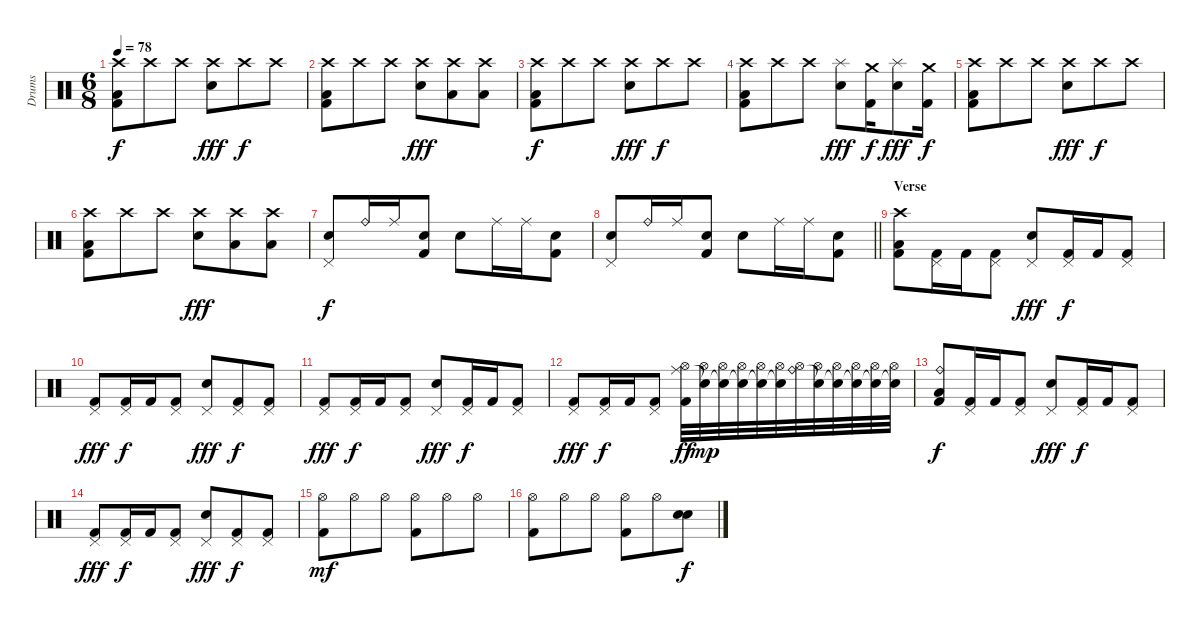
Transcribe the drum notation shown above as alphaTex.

\track ("Drums" "Drums") {instrument percussion}
\staff {score}
\articulation defaults
\ts (6 8)
\tempo 78
\clef neutral
\ks c
("Crash high (hit)" "Low Floor Tom (hit)" "Kick (hit) 2").8{dy f} "Crash high (hit)".8 "Crash high (hit)".8 ("Crash high (hit)" "Snare (hit) 2").8{dy fff} "Crash high (hit)".8{dy f} "Crash high (hit)".8 |
("Crash high (hit)" "Low Floor Tom (hit)" "Kick (hit) 2").8 "Crash high (hit)".8 "Crash high (hit)".8 ("Crash high (hit)" "Snare (hit) 2").8{dy fff} ("Crash high (hit)" "Low Tom (hit)").8 ("Crash high (hit)" "Low Tom (hit)").8 |
("Crash high (hit)" "Low Floor Tom (hit)" "Kick (hit) 2").8{dy f} "Crash high (hit)".8 "Crash high (hit)".8 ("Crash high (hit)" "Snare (hit) 2").8{dy fff} "Crash high (hit)".8{dy f} "Crash high (hit)".8 |
("Crash high (hit)" "Low Floor Tom (hit)" "Kick (hit) 2").8 "Crash high (hit)".8 "Crash high (hit)".8 ("Splash (hit)" "Snare (hit) 2").8{dy fff} ("Crash medium (hit)" "Kick (hit) 2").16{dy f} ("Splash (hit)" "Snare (hit) 2").8{dy fff} ("Crash medium (hit)" "Kick (hit) 2").16{dy f} |
("Crash high (hit)" "Low Floor Tom (hit)" "Kick (hit) 2").8 "Crash high (hit)".8 "Crash high (hit)".8 ("Crash high (hit)" "Snare (hit) 2").8{dy fff} "Crash high (hit)".8{dy f} "Crash high (hit)".8 |
("Crash high (hit)" "Low Floor Tom (hit)" "Kick (hit) 2").8 "Crash high (hit)".8 "Crash high (hit)".8 ("Crash high (hit)" "Snare (hit) 2").8{dy fff} ("Crash high (hit)" "Low Tom (hit)").8 ("Crash high (hit)" "Low Tom (hit)").8 |
("Pedal Hi-Hat (hit)" "Snare (hit) 2").8{dy f} "Ride (bell)".16 "Ride (middle)".16 ("Snare (hit) 2" "Kick (hit) 2").8 "Snare (hit) 2".8 "Ride (middle)".16 "Ride (middle)".16 ("Snare (hit) 2" "Kick (hit) 2").8 |
\barLineRight lightlight
("Pedal Hi-Hat (hit)" "Snare (hit) 2").8 "Ride (bell)".16 "Ride (middle)".16 ("Snare (hit) 2" "Kick (hit) 2").8 "Snare (hit) 2".8 "Ride (middle)".16 "Ride (middle)".16 ("Snare (hit) 2" "Kick (hit) 2").8 |
\section ("" "Verse")
("Crash high (hit)" "Low Floor Tom (hit)" "Kick (hit) 2").8 ("Pedal Hi-Hat (hit)" "Kick (hit) 2").16 "Kick (hit) 2".16 ("Pedal Hi-Hat (hit)" "Kick (hit) 2").8 ("Pedal Hi-Hat (hit)" "Snare (hit) 2").8{dy fff} ("Pedal Hi-Hat (hit)" "Kick (hit) 2").16{dy f} "Kick (hit) 2".16 ("Pedal Hi-Hat (hit)" "Kick (hit) 2").8 |
("Pedal Hi-Hat (hit)" "Kick (hit) 2").8{dy fff} ("Pedal Hi-Hat (hit)" "Kick (hit) 2").16{dy f} "Kick (hit) 2".16 ("Pedal Hi-Hat (hit)" "Kick (hit) 2").8 ("Pedal Hi-Hat (hit)" "Snare (hit) 2").8{dy fff} ("Pedal Hi-Hat (hit)" "Kick (hit) 2").8{dy f} ("Pedal Hi-Hat (hit)" "Kick (hit) 2").8 |
("Pedal Hi-Hat (hit)" "Kick (hit) 2").8{dy fff} ("Pedal Hi-Hat (hit)" "Kick (hit) 2").16{dy f} "Kick (hit) 2".16 ("Pedal Hi-Hat (hit)" "Kick (hit) 2").8 ("Pedal Hi-Hat (hit)" "Snare (hit) 2").8{dy fff} ("Pedal Hi-Hat (hit)" "Kick (hit) 2").16{dy f} "Kick (hit) 2".16 ("Pedal Hi-Hat (hit)" "Kick (hit) 2").8 |
("Pedal Hi-Hat (hit)" "Kick (hit) 2").8{dy fff} ("Pedal Hi-Hat (hit)" "Kick (hit) 2").16{dy f} "Kick (hit) 2".16 ("Pedal Hi-Hat (hit)" "Kick (hit) 2").8 ("Hi-Hat (open)" "Ride (middle)" "Kick (hit) 2").32{dy ff} ("Hi-Hat (open)" "Snare (hit)"{t}).32{dy mp} ("Hi-Hat (open)" "Snare (hit)"{t}).32 ("Hi-Hat (open)" "Snare (hit)"{t}).32 ("Hi-Hat (open)" "Snare (hit)"{t}).32 ("Hi-Hat (open)" "Snare (hit)"{t}).32 ("Hi-Hat (open)" "Ride (bell)").32 ("Hi-Hat (open)" "Snare (hit)"{t}).32 ("Hi-Hat (open)" "Snare (hit)"{t}).32 ("Hi-Hat (open)" "Snare (hit)"{t}).32 ("Hi-Hat (open)" "Snare (hit)"{t}).32 ("Hi-Hat (open)" "Snare (hit)"{t}).32 |
("Ride (bell)" "Low Floor Tom (hit)" "Kick (hit) 2").8{dy f} ("Pedal Hi-Hat (hit)" "Kick (hit) 2").16 "Kick (hit) 2".16 ("Pedal Hi-Hat (hit)" "Kick (hit) 2").8 ("Pedal Hi-Hat (hit)" "Snare (hit) 2").8{dy fff} ("Pedal Hi-Hat (hit)" "Kick (hit) 2").16{dy f} "Kick (hit) 2".16 ("Pedal Hi-Hat (hit)" "Kick (hit) 2").8 |
("Pedal Hi-Hat (hit)" "Kick (hit) 2").8{dy fff} ("Pedal Hi-Hat (hit)" "Kick (hit) 2").16{dy f} "Kick (hit) 2".16 ("Pedal Hi-Hat (hit)" "Kick (hit) 2").8 ("Pedal Hi-Hat (hit)" "Snare (hit) 2").8{dy fff} ("Pedal Hi-Hat (hit)" "Kick (hit) 2").8{dy f} ("Pedal Hi-Hat (hit)" "Kick (hit) 2").8 |
("Hi-Hat (open)" "Kick (hit) 2").8{dy mf} "Hi-Hat (open)".8 "Hi-Hat (open)".8 ("Hi-Hat (open)" "Kick (hit) 2").8 "Hi-Hat (open)".8 "Hi-Hat (open)".8 |
("Hi-Hat (open)" "Kick (hit) 2").8 "Hi-Hat (open)".8 "Hi-Hat (open)".8 ("Hi-Hat (open)" "Kick (hit) 2").8 "Hi-Hat (open)".8 ("Snare (hit) 2" "Snare (hit) 2").8{dy f}
